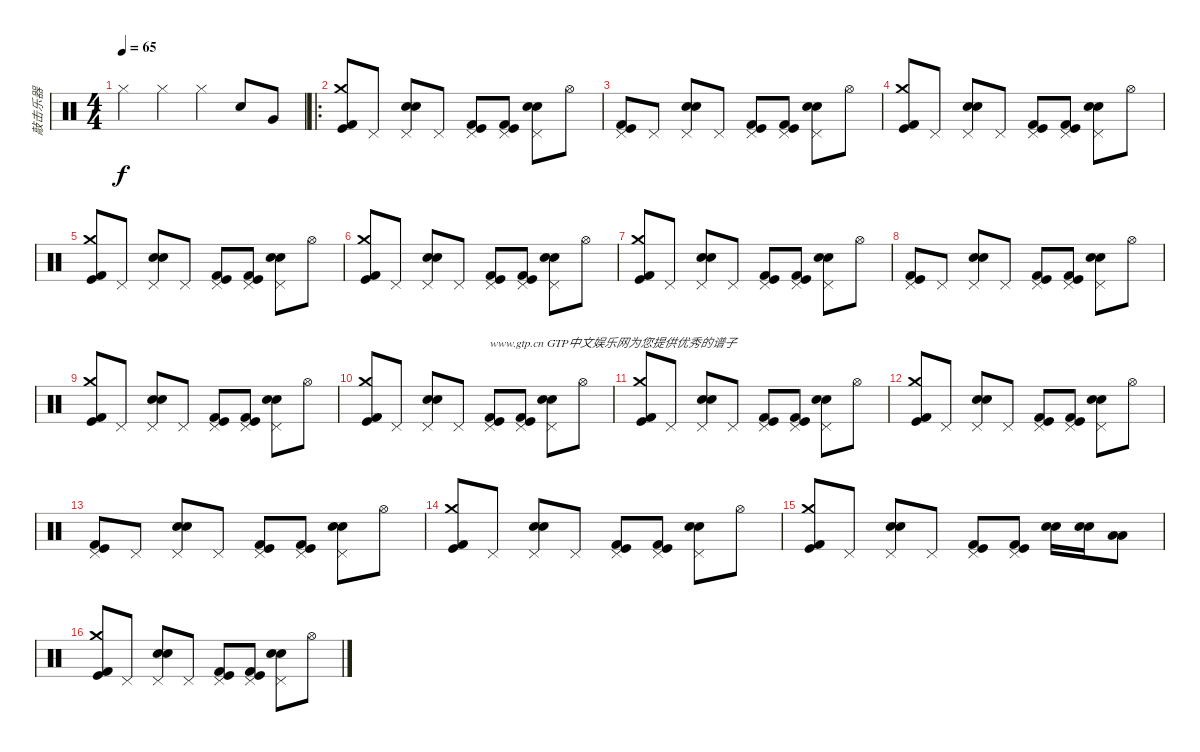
\track ("敲击乐器" "敲击乐器") {instrument percussion}
\staff {score}
\articulation defaults
\ts (4 4)
\tempo 65
\clef neutral
\ks c "Hi-Hat (closed)".4{dy f} "Hi-Hat (closed)".4 "Hi-Hat (closed)".4 "Electric Snare (hit)".8 "Very Low Tom (hit)".8
|
\ro
("Kick (hit)" "Crash medium (hit)" "Kick (hit) 2").8 "Pedal Hi-Hat (hit)".8 ("Electric Snare (hit)" "Pedal Hi-Hat (hit)" "Snare (hit) 2").8 "Pedal Hi-Hat (hit)".8 ("Kick (hit)" "Pedal Hi-Hat (hit)" "Kick (hit) 2").8 ("Kick (hit)" "Pedal Hi-Hat (hit)" "Kick (hit) 2").8 ("Electric Snare (hit)" "Pedal Hi-Hat (hit)" "Snare (hit) 2").8 "Hi-Hat (open)".8 |
("Kick (hit)" "Pedal Hi-Hat (hit)" "Kick (hit) 2").8 "Pedal Hi-Hat (hit)".8 ("Electric Snare (hit)" "Pedal Hi-Hat (hit)" "Snare (hit) 2").8 "Pedal Hi-Hat (hit)".8 ("Kick (hit)" "Pedal Hi-Hat (hit)" "Kick (hit) 2").8 ("Kick (hit)" "Pedal Hi-Hat (hit)" "Kick (hit) 2").8 ("Electric Snare (hit)" "Pedal Hi-Hat (hit)" "Snare (hit) 2").8 "Hi-Hat (open)".8 |
("Kick (hit)" "Crash medium (hit)" "Kick (hit) 2").8 "Pedal Hi-Hat (hit)".8 ("Electric Snare (hit)" "Pedal Hi-Hat (hit)" "Snare (hit) 2").8 "Pedal Hi-Hat (hit)".8 ("Kick (hit)" "Pedal Hi-Hat (hit)" "Kick (hit) 2").8 ("Kick (hit)" "Pedal Hi-Hat (hit)" "Kick (hit) 2").8 ("Electric Snare (hit)" "Pedal Hi-Hat (hit)" "Snare (hit) 2").8 "Hi-Hat (open)".8 |
("Kick (hit)" "Crash medium (hit)" "Kick (hit) 2").8 "Pedal Hi-Hat (hit)".8 ("Electric Snare (hit)" "Pedal Hi-Hat (hit)" "Snare (hit) 2").8 "Pedal Hi-Hat (hit)".8 ("Kick (hit)" "Pedal Hi-Hat (hit)" "Kick (hit) 2").8 ("Kick (hit)" "Pedal Hi-Hat (hit)" "Kick (hit) 2").8 ("Electric Snare (hit)" "Pedal Hi-Hat (hit)" "Snare (hit) 2").8 "Hi-Hat (open)".8 |
("Kick (hit)" "Crash medium (hit)" "Kick (hit) 2").8 "Pedal Hi-Hat (hit)".8 ("Electric Snare (hit)" "Pedal Hi-Hat (hit)" "Snare (hit) 2").8 "Pedal Hi-Hat (hit)".8 ("Kick (hit)" "Pedal Hi-Hat (hit)" "Kick (hit) 2").8 ("Kick (hit)" "Pedal Hi-Hat (hit)" "Kick (hit) 2").8 ("Electric Snare (hit)" "Pedal Hi-Hat (hit)" "Snare (hit) 2").8 "Hi-Hat (open)".8 |
("Kick (hit)" "Crash medium (hit)" "Kick (hit) 2").8 "Pedal Hi-Hat (hit)".8 ("Electric Snare (hit)" "Pedal Hi-Hat (hit)" "Snare (hit) 2").8 "Pedal Hi-Hat (hit)".8 ("Kick (hit)" "Pedal Hi-Hat (hit)" "Kick (hit) 2").8 ("Kick (hit)" "Pedal Hi-Hat (hit)" "Kick (hit) 2").8 ("Electric Snare (hit)" "Pedal Hi-Hat (hit)" "Snare (hit) 2").8 "Hi-Hat (open)".8 |
("Kick (hit)" "Pedal Hi-Hat (hit)" "Kick (hit) 2").8 "Pedal Hi-Hat (hit)".8 ("Electric Snare (hit)" "Pedal Hi-Hat (hit)" "Snare (hit) 2").8 "Pedal Hi-Hat (hit)".8 ("Kick (hit)" "Pedal Hi-Hat (hit)" "Kick (hit) 2").8 ("Kick (hit)" "Pedal Hi-Hat (hit)" "Kick (hit) 2").8 ("Electric Snare (hit)" "Pedal Hi-Hat (hit)" "Snare (hit) 2").8 "Hi-Hat (open)".8 |
("Kick (hit)" "Crash medium (hit)" "Kick (hit) 2").8 "Pedal Hi-Hat (hit)".8 ("Electric Snare (hit)" "Pedal Hi-Hat (hit)" "Snare (hit) 2").8 "Pedal Hi-Hat (hit)".8 ("Kick (hit)" "Pedal Hi-Hat (hit)" "Kick (hit) 2").8 ("Kick (hit)" "Pedal Hi-Hat (hit)" "Kick (hit) 2").8 ("Electric Snare (hit)" "Pedal Hi-Hat (hit)" "Snare (hit) 2").8 "Hi-Hat (open)".8 |
("Kick (hit)" "Crash medium (hit)" "Kick (hit) 2").8 "Pedal Hi-Hat (hit)".8 ("Electric Snare (hit)" "Pedal Hi-Hat (hit)" "Snare (hit) 2").8 "Pedal Hi-Hat (hit)".8 ("Kick (hit)" "Pedal Hi-Hat (hit)" "Kick (hit) 2").8{txt "www.gtp.cn GTP中文娱乐网为您提供优秀的谱子"} ("Kick (hit)" "Pedal Hi-Hat (hit)" "Kick (hit) 2").8 ("Electric Snare (hit)" "Pedal Hi-Hat (hit)" "Snare (hit) 2").8 "Hi-Hat (open)".8 |
("Kick (hit)" "Crash medium (hit)" "Kick (hit) 2").8 "Pedal Hi-Hat (hit)".8 ("Electric Snare (hit)" "Pedal Hi-Hat (hit)" "Snare (hit) 2").8 "Pedal Hi-Hat (hit)".8 ("Kick (hit)" "Pedal Hi-Hat (hit)" "Kick (hit) 2").8 ("Kick (hit)" "Pedal Hi-Hat (hit)" "Kick (hit) 2").8 ("Electric Snare (hit)" "Pedal Hi-Hat (hit)" "Snare (hit) 2").8 "Hi-Hat (open)".8 |
("Kick (hit)" "Crash medium (hit)" "Kick (hit) 2").8 "Pedal Hi-Hat (hit)".8 ("Electric Snare (hit)" "Pedal Hi-Hat (hit)" "Snare (hit) 2").8 "Pedal Hi-Hat (hit)".8 ("Kick (hit)" "Pedal Hi-Hat (hit)" "Kick (hit) 2").8 ("Kick (hit)" "Pedal Hi-Hat (hit)" "Kick (hit) 2").8 ("Electric Snare (hit)" "Pedal Hi-Hat (hit)" "Snare (hit) 2").8 "Hi-Hat (open)".8 |
("Kick (hit)" "Pedal Hi-Hat (hit)" "Kick (hit) 2").8 "Pedal Hi-Hat (hit)".8 ("Electric Snare (hit)" "Pedal Hi-Hat (hit)" "Snare (hit) 2").8 "Pedal Hi-Hat (hit)".8 ("Kick (hit)" "Pedal Hi-Hat (hit)" "Kick (hit) 2").8 ("Kick (hit)" "Pedal Hi-Hat (hit)" "Kick (hit) 2").8 ("Electric Snare (hit)" "Pedal Hi-Hat (hit)" "Snare (hit) 2").8 "Hi-Hat (open)".8 |
("Kick (hit)" "Crash medium (hit)" "Kick (hit) 2").8 "Pedal Hi-Hat (hit)".8 ("Electric Snare (hit)" "Pedal Hi-Hat (hit)" "Snare (hit) 2").8 "Pedal Hi-Hat (hit)".8 ("Kick (hit)" "Pedal Hi-Hat (hit)" "Kick (hit) 2").8 ("Kick (hit)" "Pedal Hi-Hat (hit)" "Kick (hit) 2").8 ("Electric Snare (hit)" "Pedal Hi-Hat (hit)" "Snare (hit) 2").8 "Hi-Hat (open)".8 |
("Kick (hit)" "Crash medium (hit)" "Kick (hit) 2").8 "Pedal Hi-Hat (hit)".8 ("Electric Snare (hit)" "Pedal Hi-Hat (hit)" "Snare (hit) 2").8 "Pedal Hi-Hat (hit)".8 ("Kick (hit)" "Pedal Hi-Hat (hit)" "Kick (hit) 2").8 ("Kick (hit)" "Pedal Hi-Hat (hit)" "Kick (hit) 2").8 ("Electric Snare (hit)" "Snare (hit) 2").16 ("Electric Snare (hit)" "Snare (hit) 2").16 ("Low Tom (hit)" "Low Tom (hit)").8 |
("Kick (hit)" "Crash medium (hit)" "Kick (hit) 2").8 "Pedal Hi-Hat (hit)".8 ("Electric Snare (hit)" "Pedal Hi-Hat (hit)" "Snare (hit) 2").8 "Pedal Hi-Hat (hit)".8 ("Kick (hit)" "Pedal Hi-Hat (hit)" "Kick (hit) 2").8 ("Kick (hit)" "Pedal Hi-Hat (hit)" "Kick (hit) 2").8 ("Electric Snare (hit)" "Pedal Hi-Hat (hit)" "Snare (hit) 2").8 "Hi-Hat (open)".8
